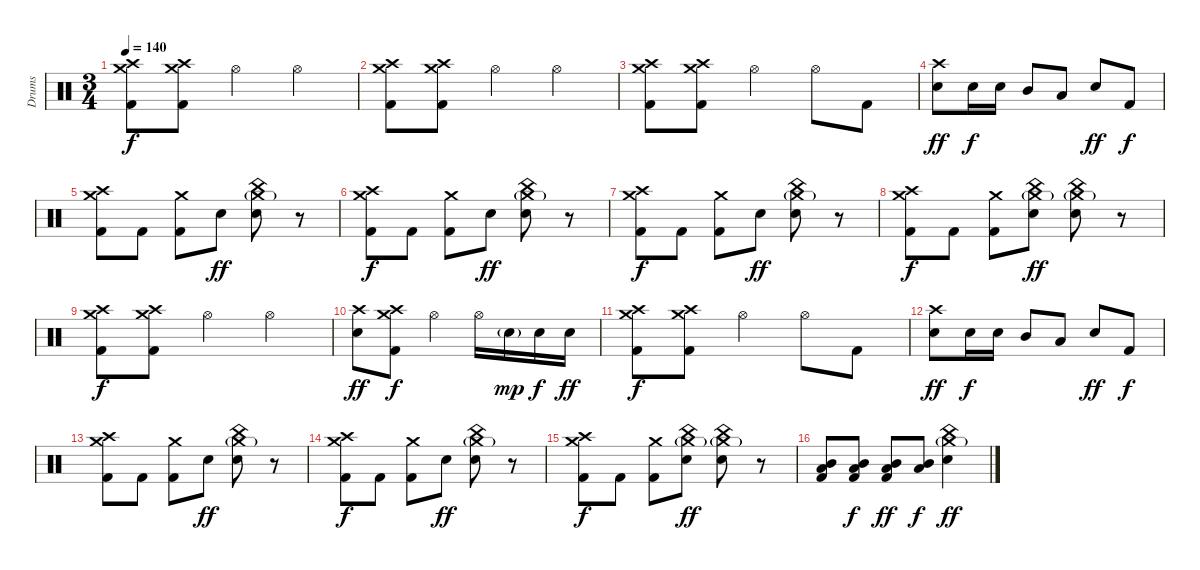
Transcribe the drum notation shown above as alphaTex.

\track ("Drums" "Drums") {instrument percussion}
\staff {score}
\articulation defaults
\ts (3 4)
\tempo 140
\clef neutral
\ks c
("Crash high (hit)" "Crash medium (hit)" "Kick (hit) 2").8{dy f} ("Crash high (hit)" "Crash medium (hit)" "Kick (hit) 2").8 "Hi-Hat (open)".4 "Hi-Hat (open)".4 |
("Crash high (hit)" "Crash medium (hit)" "Kick (hit) 2").8 ("Crash high (hit)" "Crash medium (hit)" "Kick (hit) 2").8 "Hi-Hat (open)".4 "Hi-Hat (open)".4 |
("Crash high (hit)" "Crash medium (hit)" "Kick (hit) 2").8 ("Crash high (hit)" "Crash medium (hit)" "Kick (hit) 2").8 "Hi-Hat (open)".4 "Hi-Hat (open)".8 "Kick (hit) 2".8 |
("Crash high (hit)" "Snare (hit) 2").8{dy ff} "Snare (hit) 2".16{dy f} "Snare (hit) 2".16 "Mid Tom (hit)".8 "Low Tom (hit)".8 "Snare (hit) 2".8{dy ff} "Kick (hit) 2".8{dy f} |
("Crash high (hit)" "Crash medium (hit)" "Kick (hit) 2").8 "Kick (hit) 2".8 ("Crash medium (hit)" "Kick (hit) 2").8 "Snare (hit) 2".8{dy ff} ("China (hit)" "Crash medium (hit)"{g} "Snare (hit) 2").8 r.8 |
("Crash high (hit)" "Crash medium (hit)" "Kick (hit) 2").8{dy f} "Kick (hit) 2".8 ("Crash medium (hit)" "Kick (hit) 2").8 "Snare (hit) 2".8{dy ff} ("China (hit)" "Crash medium (hit)"{g} "Snare (hit) 2").8 r.8 |
("Crash high (hit)" "Crash medium (hit)" "Kick (hit) 2").8{dy f} "Kick (hit) 2".8 ("Crash medium (hit)" "Kick (hit) 2").8 "Snare (hit) 2".8{dy ff} ("China (hit)" "Crash medium (hit)"{g} "Snare (hit) 2").8 r.8 |
("Crash high (hit)" "Crash medium (hit)" "Kick (hit) 2").8{dy f} "Kick (hit) 2".8 ("Crash medium (hit)" "Kick (hit) 2").8 ("China (hit)" "Crash medium (hit)"{g} "Snare (hit) 2").8{dy ff} ("China (hit)" "Crash medium (hit)"{g} "Snare (hit) 2").8 r.8 |
("Crash high (hit)" "Crash medium (hit)" "Kick (hit) 2").8{dy f} ("Crash high (hit)" "Crash medium (hit)" "Kick (hit) 2").8 "Hi-Hat (open)".4 "Hi-Hat (open)".4 |
("Crash high (hit)" "Snare (hit) 2").8{dy ff} ("Crash high (hit)" "Crash medium (hit)" "Kick (hit) 2").8{dy f} "Hi-Hat (open)".4 "Hi-Hat (open)".16 "Snare (hit) 2"{g}.16{dy mp} "Snare (hit) 2".16{dy f} "Snare (hit) 2".16{dy ff} |
("Crash high (hit)" "Crash medium (hit)" "Kick (hit) 2").8{dy f} ("Crash high (hit)" "Crash medium (hit)" "Kick (hit) 2").8 "Hi-Hat (open)".4 "Hi-Hat (open)".8 "Kick (hit) 2".8 |
("Crash high (hit)" "Snare (hit) 2").8{dy ff} "Snare (hit) 2".16{dy f} "Snare (hit) 2".16 "Mid Tom (hit)".8 "Low Tom (hit)".8 "Snare (hit) 2".8{dy ff} "Kick (hit) 2".8{dy f} |
("Crash high (hit)" "Crash medium (hit)" "Kick (hit) 2").8 "Kick (hit) 2".8 ("Crash medium (hit)" "Kick (hit) 2").8 "Snare (hit) 2".8{dy ff} ("China (hit)" "Crash medium (hit)"{g} "Snare (hit) 2").8 r.8 |
("Crash high (hit)" "Crash medium (hit)" "Kick (hit) 2").8{dy f} "Kick (hit) 2".8 ("Crash medium (hit)" "Kick (hit) 2").8 "Snare (hit) 2".8{dy ff} ("China (hit)" "Crash medium (hit)"{g} "Snare (hit) 2").8 r.8 |
("Crash high (hit)" "Crash medium (hit)" "Kick (hit) 2").8{dy f} "Kick (hit) 2".8 ("Crash medium (hit)" "Kick (hit) 2").8 ("China (hit)" "Crash medium (hit)"{g} "Snare (hit) 2").8{dy ff} ("China (hit)" "Crash medium (hit)"{g} "Snare (hit) 2").8 r.8 |
("Mid Tom (hit)" "Low Tom (hit)" "Kick (hit) 2").8 ("Mid Tom (hit)" "Low Tom (hit)" "Kick (hit) 2").8{dy f} ("Mid Tom (hit)" "Low Tom (hit)" "Kick (hit) 2").8{dy ff} ("Mid Tom (hit)" "Low Tom (hit)").8{dy f} ("China (hit)" "Crash medium (hit)"{g} "Snare (hit) 2").4{dy ff}
